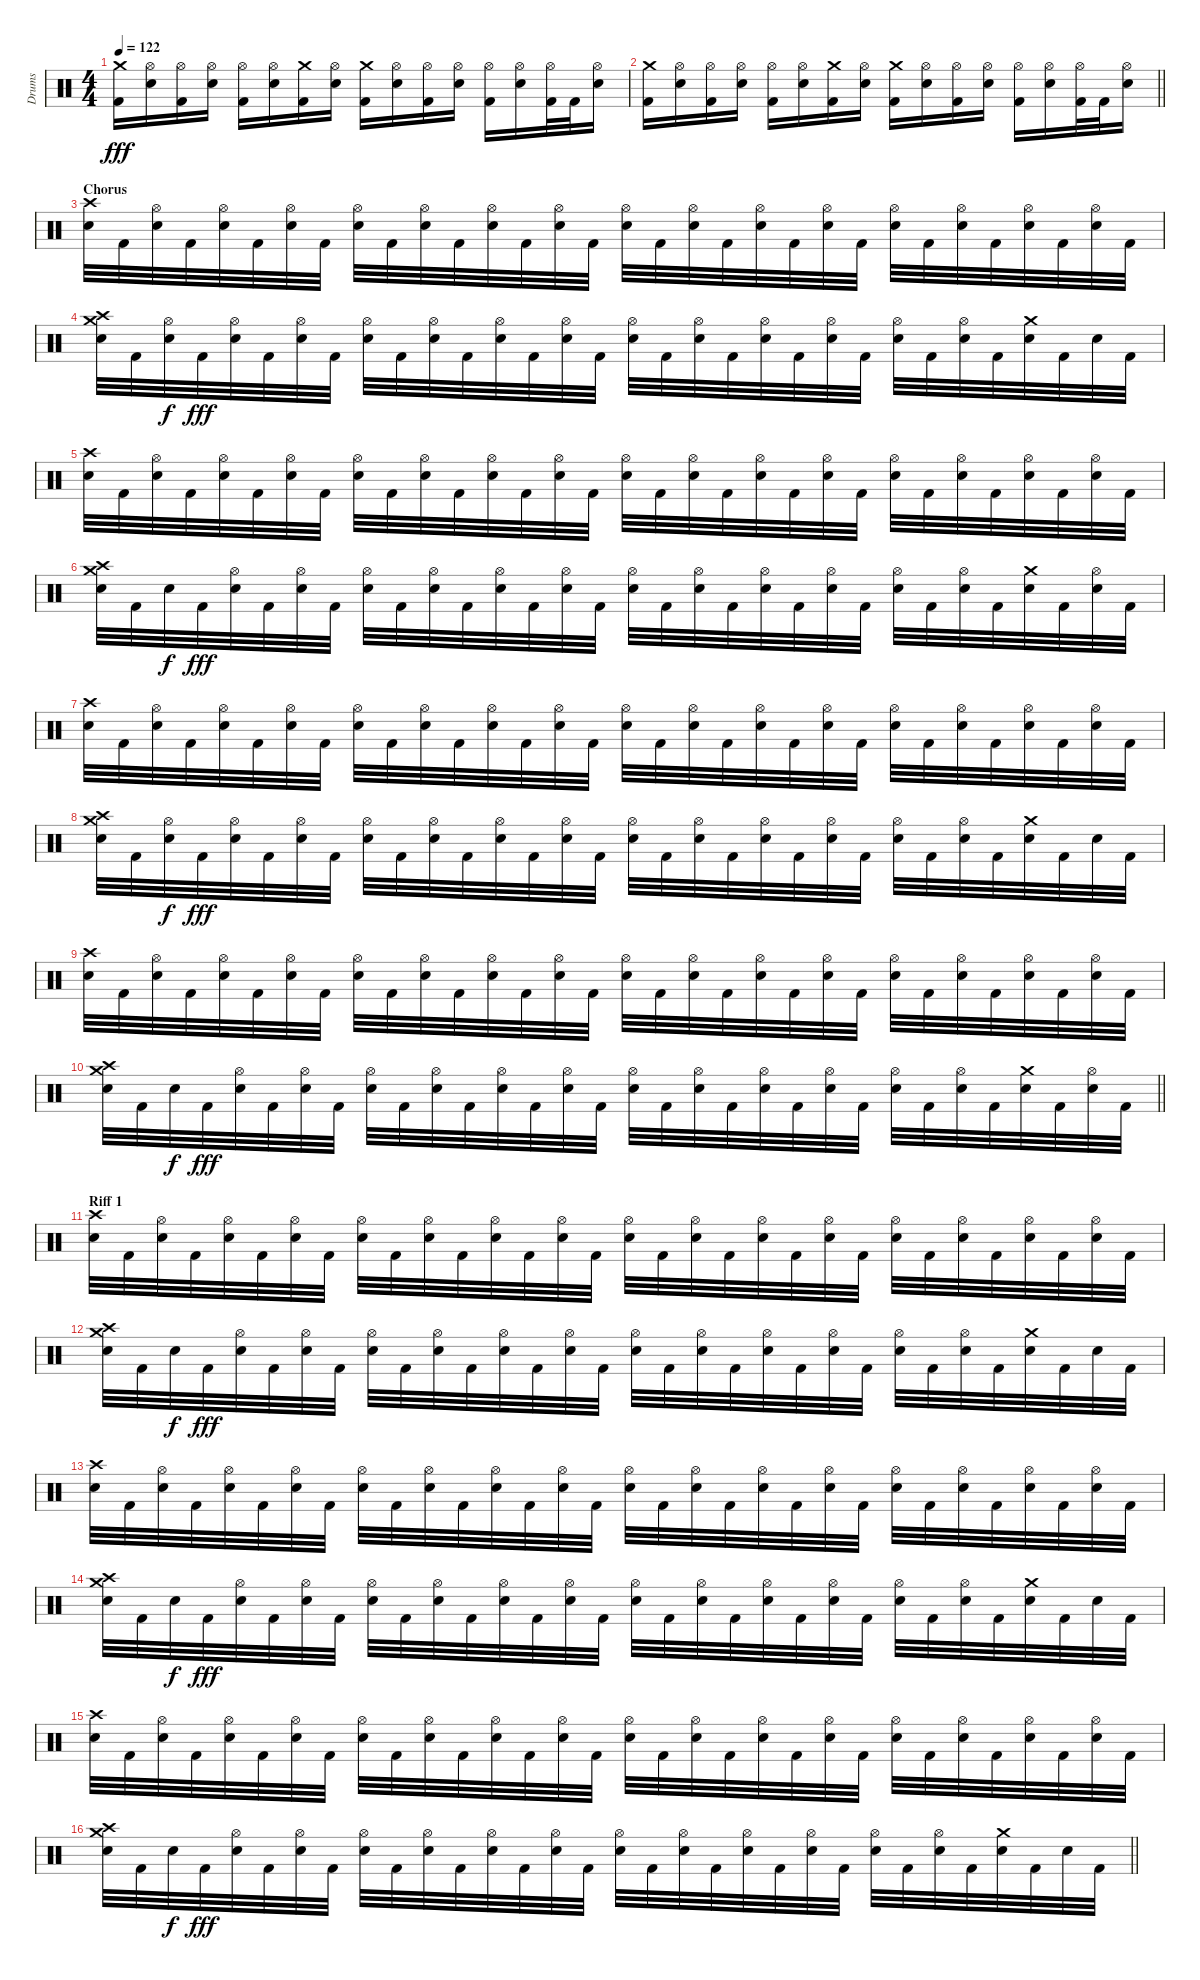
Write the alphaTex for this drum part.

\track ("Drums" "Drums") {instrument percussion}
\staff {score}
\articulation defaults
\ts (4 4)
\tempo 122
\clef neutral
\ks c
("Kick (hit) 2" "Crash medium (hit)").16{dy fff} ("Snare (hit) 2" "Hi-Hat (open)").16 ("Kick (hit) 2" "Hi-Hat (open)").16 ("Snare (hit) 2" "Hi-Hat (open)").16 ("Kick (hit) 2" "Hi-Hat (open)").16 ("Snare (hit) 2" "Hi-Hat (open)").16 ("Kick (hit) 2" "Crash medium (hit)").16 ("Snare (hit) 2" "Hi-Hat (open)").16 ("Kick (hit) 2" "Crash medium (hit)").16 ("Snare (hit) 2" "Hi-Hat (open)").16 ("Kick (hit) 2" "Hi-Hat (open)").16 ("Snare (hit) 2" "Hi-Hat (open)").16 ("Kick (hit) 2" "Hi-Hat (open)").16 ("Snare (hit) 2" "Hi-Hat (open)").16 ("Kick (hit) 2" "Hi-Hat (open)").32 "Kick (hit) 2".32 ("Snare (hit) 2" "Hi-Hat (open)").16 |
\barLineRight lightlight
("Kick (hit) 2" "Crash medium (hit)").16 ("Snare (hit) 2" "Hi-Hat (open)").16 ("Kick (hit) 2" "Hi-Hat (open)").16 ("Snare (hit) 2" "Hi-Hat (open)").16 ("Kick (hit) 2" "Hi-Hat (open)").16 ("Snare (hit) 2" "Hi-Hat (open)").16 ("Kick (hit) 2" "Crash medium (hit)").16 ("Snare (hit) 2" "Hi-Hat (open)").16 ("Kick (hit) 2" "Crash medium (hit)").16 ("Snare (hit) 2" "Hi-Hat (open)").16 ("Kick (hit) 2" "Hi-Hat (open)").16 ("Snare (hit) 2" "Hi-Hat (open)").16 ("Kick (hit) 2" "Hi-Hat (open)").16 ("Snare (hit) 2" "Hi-Hat (open)").16 ("Kick (hit) 2" "Hi-Hat (open)").32 "Kick (hit) 2".32 ("Snare (hit) 2" "Hi-Hat (open)").16 |
\section ("" "Chorus")
("Snare (hit) 2" "Crash high (hit)").32 "Kick (hit) 2".32 ("Snare (hit) 2" "Hi-Hat (open)").32 "Kick (hit) 2".32 ("Hi-Hat (open)" "Snare (hit) 2").32 "Kick (hit) 2".32 ("Snare (hit) 2" "Hi-Hat (open)").32 "Kick (hit) 2".32 ("Hi-Hat (open)" "Snare (hit) 2").32 "Kick (hit) 2".32 ("Snare (hit) 2" "Hi-Hat (open)").32 "Kick (hit) 2".32 ("Snare (hit) 2" "Hi-Hat (open)").32 "Kick (hit) 2".32 ("Hi-Hat (open)" "Snare (hit) 2").32 "Kick (hit) 2".32 ("Snare (hit) 2" "Hi-Hat (open)").32 "Kick (hit) 2".32 ("Hi-Hat (open)" "Snare (hit) 2").32 "Kick (hit) 2".32 ("Snare (hit) 2" "Hi-Hat (open)").32 "Kick (hit) 2".32 ("Snare (hit) 2" "Hi-Hat (open)").32 "Kick (hit) 2".32 ("Hi-Hat (open)" "Snare (hit) 2").32 "Kick (hit) 2".32 ("Snare (hit) 2" "Hi-Hat (open)").32 "Kick (hit) 2".32 ("Hi-Hat (open)" "Snare (hit) 2").32 "Kick (hit) 2".32 ("Snare (hit) 2" "Hi-Hat (open)").32 "Kick (hit) 2".32 |
("Snare (hit) 2" "Crash high (hit)" "Crash medium (hit)").32 "Kick (hit) 2".32 ("Snare (hit) 2" "Hi-Hat (open)").32{dy f} "Kick (hit) 2".32{dy fff} ("Snare (hit) 2" "Hi-Hat (open)").32 "Kick (hit) 2".32 ("Hi-Hat (open)" "Snare (hit) 2").32 "Kick (hit) 2".32 ("Snare (hit) 2" "Hi-Hat (open)").32 "Kick (hit) 2".32 ("Snare (hit) 2" "Hi-Hat (open)").32 "Kick (hit) 2".32 ("Hi-Hat (open)" "Snare (hit) 2").32 "Kick (hit) 2".32 ("Snare (hit) 2" "Hi-Hat (open)").32 "Kick (hit) 2".32 ("Hi-Hat (open)" "Snare (hit) 2").32 "Kick (hit) 2".32 ("Snare (hit) 2" "Hi-Hat (open)").32 "Kick (hit) 2".32 ("Snare (hit) 2" "Hi-Hat (open)").32 "Kick (hit) 2".32 ("Hi-Hat (open)" "Snare (hit) 2").32 "Kick (hit) 2".32 ("Snare (hit) 2" "Hi-Hat (open)").32 "Kick (hit) 2".32 ("Hi-Hat (open)" "Snare (hit) 2").32 "Kick (hit) 2".32 ("Snare (hit) 2" "Crash medium (hit)").32 "Kick (hit) 2".32 "Snare (hit) 2".32 "Kick (hit) 2".32 |
("Snare (hit) 2" "Crash high (hit)").32 "Kick (hit) 2".32 ("Snare (hit) 2" "Hi-Hat (open)").32 "Kick (hit) 2".32 ("Hi-Hat (open)" "Snare (hit) 2").32 "Kick (hit) 2".32 ("Snare (hit) 2" "Hi-Hat (open)").32 "Kick (hit) 2".32 ("Hi-Hat (open)" "Snare (hit) 2").32 "Kick (hit) 2".32 ("Snare (hit) 2" "Hi-Hat (open)").32 "Kick (hit) 2".32 ("Snare (hit) 2" "Hi-Hat (open)").32 "Kick (hit) 2".32 ("Hi-Hat (open)" "Snare (hit) 2").32 "Kick (hit) 2".32 ("Snare (hit) 2" "Hi-Hat (open)").32 "Kick (hit) 2".32 ("Hi-Hat (open)" "Snare (hit) 2").32 "Kick (hit) 2".32 ("Snare (hit) 2" "Hi-Hat (open)").32 "Kick (hit) 2".32 ("Snare (hit) 2" "Hi-Hat (open)").32 "Kick (hit) 2".32 ("Hi-Hat (open)" "Snare (hit) 2").32 "Kick (hit) 2".32 ("Snare (hit) 2" "Hi-Hat (open)").32 "Kick (hit) 2".32 ("Hi-Hat (open)" "Snare (hit) 2").32 "Kick (hit) 2".32 ("Snare (hit) 2" "Hi-Hat (open)").32 "Kick (hit) 2".32 |
("Snare (hit) 2" "Crash high (hit)" "Crash medium (hit)").32 "Kick (hit) 2".32 "Snare (hit) 2".32{dy f} "Kick (hit) 2".32{dy fff} ("Snare (hit) 2" "Hi-Hat (open)").32 "Kick (hit) 2".32 ("Hi-Hat (open)" "Snare (hit) 2").32 "Kick (hit) 2".32 ("Snare (hit) 2" "Hi-Hat (open)").32 "Kick (hit) 2".32 ("Snare (hit) 2" "Hi-Hat (open)").32 "Kick (hit) 2".32 ("Hi-Hat (open)" "Snare (hit) 2").32 "Kick (hit) 2".32 ("Snare (hit) 2" "Hi-Hat (open)").32 "Kick (hit) 2".32 ("Hi-Hat (open)" "Snare (hit) 2").32 "Kick (hit) 2".32 ("Snare (hit) 2" "Hi-Hat (open)").32 "Kick (hit) 2".32 ("Snare (hit) 2" "Hi-Hat (open)").32 "Kick (hit) 2".32 ("Hi-Hat (open)" "Snare (hit) 2").32 "Kick (hit) 2".32 ("Snare (hit) 2" "Hi-Hat (open)").32 "Kick (hit) 2".32 ("Hi-Hat (open)" "Snare (hit) 2").32 "Kick (hit) 2".32 ("Snare (hit) 2" "Crash medium (hit)").32 "Kick (hit) 2".32 ("Snare (hit) 2" "Hi-Hat (open)").32 "Kick (hit) 2".32 |
("Snare (hit) 2" "Crash high (hit)").32 "Kick (hit) 2".32 ("Snare (hit) 2" "Hi-Hat (open)").32 "Kick (hit) 2".32 ("Hi-Hat (open)" "Snare (hit) 2").32 "Kick (hit) 2".32 ("Snare (hit) 2" "Hi-Hat (open)").32 "Kick (hit) 2".32 ("Hi-Hat (open)" "Snare (hit) 2").32 "Kick (hit) 2".32 ("Snare (hit) 2" "Hi-Hat (open)").32 "Kick (hit) 2".32 ("Snare (hit) 2" "Hi-Hat (open)").32 "Kick (hit) 2".32 ("Hi-Hat (open)" "Snare (hit) 2").32 "Kick (hit) 2".32 ("Snare (hit) 2" "Hi-Hat (open)").32 "Kick (hit) 2".32 ("Hi-Hat (open)" "Snare (hit) 2").32 "Kick (hit) 2".32 ("Snare (hit) 2" "Hi-Hat (open)").32 "Kick (hit) 2".32 ("Snare (hit) 2" "Hi-Hat (open)").32 "Kick (hit) 2".32 ("Hi-Hat (open)" "Snare (hit) 2").32 "Kick (hit) 2".32 ("Snare (hit) 2" "Hi-Hat (open)").32 "Kick (hit) 2".32 ("Hi-Hat (open)" "Snare (hit) 2").32 "Kick (hit) 2".32 ("Snare (hit) 2" "Hi-Hat (open)").32 "Kick (hit) 2".32 |
("Snare (hit) 2" "Crash high (hit)" "Crash medium (hit)").32 "Kick (hit) 2".32 ("Snare (hit) 2" "Hi-Hat (open)").32{dy f} "Kick (hit) 2".32{dy fff} ("Snare (hit) 2" "Hi-Hat (open)").32 "Kick (hit) 2".32 ("Hi-Hat (open)" "Snare (hit) 2").32 "Kick (hit) 2".32 ("Snare (hit) 2" "Hi-Hat (open)").32 "Kick (hit) 2".32 ("Snare (hit) 2" "Hi-Hat (open)").32 "Kick (hit) 2".32 ("Hi-Hat (open)" "Snare (hit) 2").32 "Kick (hit) 2".32 ("Snare (hit) 2" "Hi-Hat (open)").32 "Kick (hit) 2".32 ("Hi-Hat (open)" "Snare (hit) 2").32 "Kick (hit) 2".32 ("Snare (hit) 2" "Hi-Hat (open)").32 "Kick (hit) 2".32 ("Snare (hit) 2" "Hi-Hat (open)").32 "Kick (hit) 2".32 ("Hi-Hat (open)" "Snare (hit) 2").32 "Kick (hit) 2".32 ("Snare (hit) 2" "Hi-Hat (open)").32 "Kick (hit) 2".32 ("Hi-Hat (open)" "Snare (hit) 2").32 "Kick (hit) 2".32 ("Snare (hit) 2" "Crash medium (hit)").32 "Kick (hit) 2".32 "Snare (hit) 2".32 "Kick (hit) 2".32 |
("Snare (hit) 2" "Crash high (hit)").32 "Kick (hit) 2".32 ("Snare (hit) 2" "Hi-Hat (open)").32 "Kick (hit) 2".32 ("Hi-Hat (open)" "Snare (hit) 2").32 "Kick (hit) 2".32 ("Snare (hit) 2" "Hi-Hat (open)").32 "Kick (hit) 2".32 ("Hi-Hat (open)" "Snare (hit) 2").32 "Kick (hit) 2".32 ("Snare (hit) 2" "Hi-Hat (open)").32 "Kick (hit) 2".32 ("Snare (hit) 2" "Hi-Hat (open)").32 "Kick (hit) 2".32 ("Hi-Hat (open)" "Snare (hit) 2").32 "Kick (hit) 2".32 ("Snare (hit) 2" "Hi-Hat (open)").32 "Kick (hit) 2".32 ("Hi-Hat (open)" "Snare (hit) 2").32 "Kick (hit) 2".32 ("Snare (hit) 2" "Hi-Hat (open)").32 "Kick (hit) 2".32 ("Snare (hit) 2" "Hi-Hat (open)").32 "Kick (hit) 2".32 ("Hi-Hat (open)" "Snare (hit) 2").32 "Kick (hit) 2".32 ("Snare (hit) 2" "Hi-Hat (open)").32 "Kick (hit) 2".32 ("Hi-Hat (open)" "Snare (hit) 2").32 "Kick (hit) 2".32 ("Snare (hit) 2" "Hi-Hat (open)").32 "Kick (hit) 2".32 |
\barLineRight lightlight
("Snare (hit) 2" "Crash high (hit)" "Crash medium (hit)").32 "Kick (hit) 2".32 "Snare (hit) 2".32{dy f} "Kick (hit) 2".32{dy fff} ("Snare (hit) 2" "Hi-Hat (open)").32 "Kick (hit) 2".32 ("Hi-Hat (open)" "Snare (hit) 2").32 "Kick (hit) 2".32 ("Snare (hit) 2" "Hi-Hat (open)").32 "Kick (hit) 2".32 ("Snare (hit) 2" "Hi-Hat (open)").32 "Kick (hit) 2".32 ("Hi-Hat (open)" "Snare (hit) 2").32 "Kick (hit) 2".32 ("Snare (hit) 2" "Hi-Hat (open)").32 "Kick (hit) 2".32 ("Hi-Hat (open)" "Snare (hit) 2").32 "Kick (hit) 2".32 ("Snare (hit) 2" "Hi-Hat (open)").32 "Kick (hit) 2".32 ("Snare (hit) 2" "Hi-Hat (open)").32 "Kick (hit) 2".32 ("Hi-Hat (open)" "Snare (hit) 2").32 "Kick (hit) 2".32 ("Snare (hit) 2" "Hi-Hat (open)").32 "Kick (hit) 2".32 ("Hi-Hat (open)" "Snare (hit) 2").32 "Kick (hit) 2".32 ("Snare (hit) 2" "Crash medium (hit)").32 "Kick (hit) 2".32 ("Snare (hit) 2" "Hi-Hat (open)").32 "Kick (hit) 2".32 |
\section ("" "Riff 1")
("Snare (hit) 2" "Crash high (hit)").32 "Kick (hit) 2".32 ("Snare (hit) 2" "Hi-Hat (open)").32 "Kick (hit) 2".32 ("Hi-Hat (open)" "Snare (hit) 2").32 "Kick (hit) 2".32 ("Snare (hit) 2" "Hi-Hat (open)").32 "Kick (hit) 2".32 ("Hi-Hat (open)" "Snare (hit) 2").32 "Kick (hit) 2".32 ("Snare (hit) 2" "Hi-Hat (open)").32 "Kick (hit) 2".32 ("Snare (hit) 2" "Hi-Hat (open)").32 "Kick (hit) 2".32 ("Hi-Hat (open)" "Snare (hit) 2").32 "Kick (hit) 2".32 ("Snare (hit) 2" "Hi-Hat (open)").32 "Kick (hit) 2".32 ("Hi-Hat (open)" "Snare (hit) 2").32 "Kick (hit) 2".32 ("Snare (hit) 2" "Hi-Hat (open)").32 "Kick (hit) 2".32 ("Snare (hit) 2" "Hi-Hat (open)").32 "Kick (hit) 2".32 ("Hi-Hat (open)" "Snare (hit) 2").32 "Kick (hit) 2".32 ("Snare (hit) 2" "Hi-Hat (open)").32 "Kick (hit) 2".32 ("Hi-Hat (open)" "Snare (hit) 2").32 "Kick (hit) 2".32 ("Snare (hit) 2" "Hi-Hat (open)").32 "Kick (hit) 2".32 |
("Snare (hit) 2" "Crash high (hit)" "Crash medium (hit)").32 "Kick (hit) 2".32 "Snare (hit) 2".32{dy f} "Kick (hit) 2".32{dy fff} ("Snare (hit) 2" "Hi-Hat (open)").32 "Kick (hit) 2".32 ("Hi-Hat (open)" "Snare (hit) 2").32 "Kick (hit) 2".32 ("Snare (hit) 2" "Hi-Hat (open)").32 "Kick (hit) 2".32 ("Snare (hit) 2" "Hi-Hat (open)").32 "Kick (hit) 2".32 ("Hi-Hat (open)" "Snare (hit) 2").32 "Kick (hit) 2".32 ("Snare (hit) 2" "Hi-Hat (open)").32 "Kick (hit) 2".32 ("Hi-Hat (open)" "Snare (hit) 2").32 "Kick (hit) 2".32 ("Snare (hit) 2" "Hi-Hat (open)").32 "Kick (hit) 2".32 ("Snare (hit) 2" "Hi-Hat (open)").32 "Kick (hit) 2".32 ("Hi-Hat (open)" "Snare (hit) 2").32 "Kick (hit) 2".32 ("Snare (hit) 2" "Hi-Hat (open)").32 "Kick (hit) 2".32 ("Hi-Hat (open)" "Snare (hit) 2").32 "Kick (hit) 2".32 ("Snare (hit) 2" "Crash medium (hit)").32 "Kick (hit) 2".32 "Snare (hit) 2".32 "Kick (hit) 2".32 |
("Snare (hit) 2" "Crash high (hit)").32 "Kick (hit) 2".32 ("Snare (hit) 2" "Hi-Hat (open)").32 "Kick (hit) 2".32 ("Hi-Hat (open)" "Snare (hit) 2").32 "Kick (hit) 2".32 ("Snare (hit) 2" "Hi-Hat (open)").32 "Kick (hit) 2".32 ("Hi-Hat (open)" "Snare (hit) 2").32 "Kick (hit) 2".32 ("Snare (hit) 2" "Hi-Hat (open)").32 "Kick (hit) 2".32 ("Snare (hit) 2" "Hi-Hat (open)").32 "Kick (hit) 2".32 ("Hi-Hat (open)" "Snare (hit) 2").32 "Kick (hit) 2".32 ("Snare (hit) 2" "Hi-Hat (open)").32 "Kick (hit) 2".32 ("Hi-Hat (open)" "Snare (hit) 2").32 "Kick (hit) 2".32 ("Snare (hit) 2" "Hi-Hat (open)").32 "Kick (hit) 2".32 ("Snare (hit) 2" "Hi-Hat (open)").32 "Kick (hit) 2".32 ("Hi-Hat (open)" "Snare (hit) 2").32 "Kick (hit) 2".32 ("Snare (hit) 2" "Hi-Hat (open)").32 "Kick (hit) 2".32 ("Hi-Hat (open)" "Snare (hit) 2").32 "Kick (hit) 2".32 ("Snare (hit) 2" "Hi-Hat (open)").32 "Kick (hit) 2".32 |
("Snare (hit) 2" "Crash high (hit)" "Crash medium (hit)").32 "Kick (hit) 2".32 "Snare (hit) 2".32{dy f} "Kick (hit) 2".32{dy fff} ("Snare (hit) 2" "Hi-Hat (open)").32 "Kick (hit) 2".32 ("Hi-Hat (open)" "Snare (hit) 2").32 "Kick (hit) 2".32 ("Snare (hit) 2" "Hi-Hat (open)").32 "Kick (hit) 2".32 ("Snare (hit) 2" "Hi-Hat (open)").32 "Kick (hit) 2".32 ("Hi-Hat (open)" "Snare (hit) 2").32 "Kick (hit) 2".32 ("Snare (hit) 2" "Hi-Hat (open)").32 "Kick (hit) 2".32 ("Hi-Hat (open)" "Snare (hit) 2").32 "Kick (hit) 2".32 ("Snare (hit) 2" "Hi-Hat (open)").32 "Kick (hit) 2".32 ("Snare (hit) 2" "Hi-Hat (open)").32 "Kick (hit) 2".32 ("Hi-Hat (open)" "Snare (hit) 2").32 "Kick (hit) 2".32 ("Snare (hit) 2" "Hi-Hat (open)").32 "Kick (hit) 2".32 ("Hi-Hat (open)" "Snare (hit) 2").32 "Kick (hit) 2".32 ("Snare (hit) 2" "Crash medium (hit)").32 "Kick (hit) 2".32 "Snare (hit) 2".32 "Kick (hit) 2".32 |
("Snare (hit) 2" "Crash high (hit)").32 "Kick (hit) 2".32 ("Snare (hit) 2" "Hi-Hat (open)").32 "Kick (hit) 2".32 ("Hi-Hat (open)" "Snare (hit) 2").32 "Kick (hit) 2".32 ("Snare (hit) 2" "Hi-Hat (open)").32 "Kick (hit) 2".32 ("Hi-Hat (open)" "Snare (hit) 2").32 "Kick (hit) 2".32 ("Snare (hit) 2" "Hi-Hat (open)").32 "Kick (hit) 2".32 ("Snare (hit) 2" "Hi-Hat (open)").32 "Kick (hit) 2".32 ("Hi-Hat (open)" "Snare (hit) 2").32 "Kick (hit) 2".32 ("Snare (hit) 2" "Hi-Hat (open)").32 "Kick (hit) 2".32 ("Hi-Hat (open)" "Snare (hit) 2").32 "Kick (hit) 2".32 ("Snare (hit) 2" "Hi-Hat (open)").32 "Kick (hit) 2".32 ("Snare (hit) 2" "Hi-Hat (open)").32 "Kick (hit) 2".32 ("Hi-Hat (open)" "Snare (hit) 2").32 "Kick (hit) 2".32 ("Snare (hit) 2" "Hi-Hat (open)").32 "Kick (hit) 2".32 ("Hi-Hat (open)" "Snare (hit) 2").32 "Kick (hit) 2".32 ("Snare (hit) 2" "Hi-Hat (open)").32 "Kick (hit) 2".32 |
\barLineRight lightlight
("Snare (hit) 2" "Crash high (hit)" "Crash medium (hit)").32 "Kick (hit) 2".32 "Snare (hit) 2".32{dy f} "Kick (hit) 2".32{dy fff} ("Snare (hit) 2" "Hi-Hat (open)").32 "Kick (hit) 2".32 ("Hi-Hat (open)" "Snare (hit) 2").32 "Kick (hit) 2".32 ("Snare (hit) 2" "Hi-Hat (open)").32 "Kick (hit) 2".32 ("Snare (hit) 2" "Hi-Hat (open)").32 "Kick (hit) 2".32 ("Hi-Hat (open)" "Snare (hit) 2").32 "Kick (hit) 2".32 ("Snare (hit) 2" "Hi-Hat (open)").32 "Kick (hit) 2".32 ("Hi-Hat (open)" "Snare (hit) 2").32 "Kick (hit) 2".32 ("Snare (hit) 2" "Hi-Hat (open)").32 "Kick (hit) 2".32 ("Snare (hit) 2" "Hi-Hat (open)").32 "Kick (hit) 2".32 ("Hi-Hat (open)" "Snare (hit) 2").32 "Kick (hit) 2".32 ("Snare (hit) 2" "Hi-Hat (open)").32 "Kick (hit) 2".32 ("Hi-Hat (open)" "Snare (hit) 2").32 "Kick (hit) 2".32 ("Snare (hit) 2" "Crash medium (hit)").32 "Kick (hit) 2".32 "Snare (hit) 2".32 "Kick (hit) 2".32
